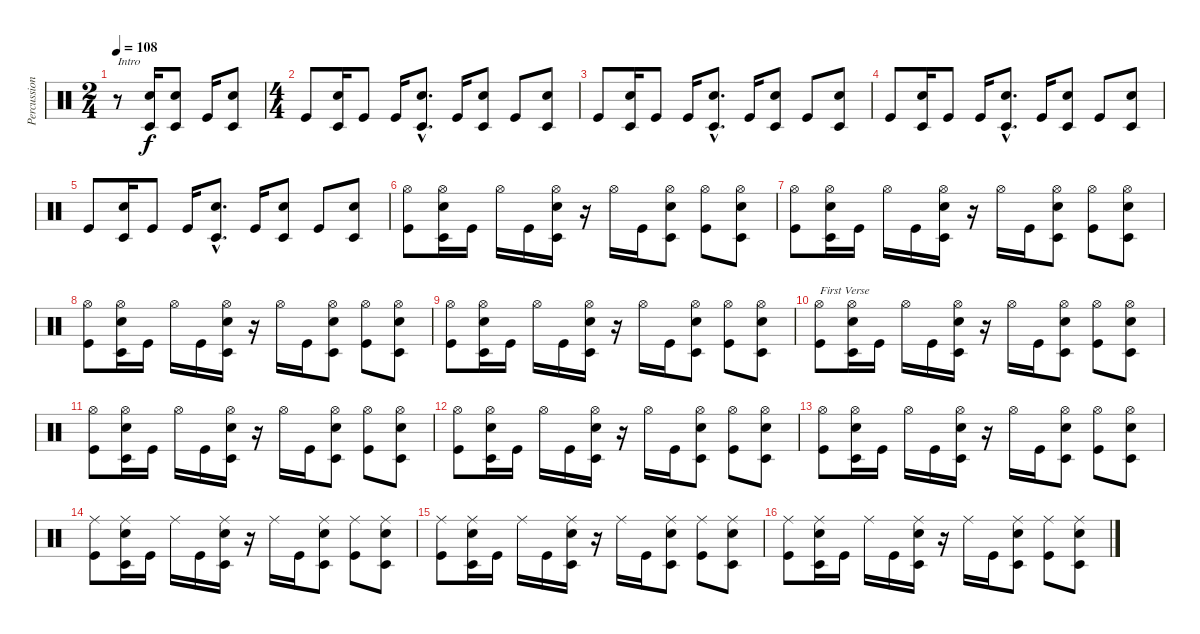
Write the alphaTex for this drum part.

\track ("Percussion" "Percussion") {instrument percussion}
\staff {score}
\articulation defaults
\ts (2 4)
\tempo 108
\clef neutral
\ks c
r.8{txt "Intro" dy f} ("Electric Snare (hit)" "Timbale low (hit)").16 ("Electric Snare (hit)" "Timbale low (hit)").8 "Kick (hit)".16 ("Timbale low (hit)" "Electric Snare (hit)").8 |
\ts (4 4)
"Kick (hit)".8 ("Electric Snare (hit)" "Timbale low (hit)").16 "Kick (hit)".8 "Kick (hit)".16 ("Electric Snare (hit)"{hac} "Timbale low (hit)"{hac}).8{d} "Kick (hit)".16 ("Electric Snare (hit)" "Timbale low (hit)").8 "Kick (hit)".8 ("Electric Snare (hit)" "Timbale low (hit)").8 |
"Kick (hit)".8 ("Electric Snare (hit)" "Timbale low (hit)").16 "Kick (hit)".8 "Kick (hit)".16 ("Electric Snare (hit)"{hac} "Timbale low (hit)"{hac}).8{d} "Kick (hit)".16 ("Electric Snare (hit)" "Timbale low (hit)").8 "Kick (hit)".8 ("Electric Snare (hit)" "Timbale low (hit)").8 |
"Kick (hit)".8 ("Electric Snare (hit)" "Timbale low (hit)").16 "Kick (hit)".8 "Kick (hit)".16 ("Electric Snare (hit)"{hac} "Timbale low (hit)"{hac}).8{d} "Kick (hit)".16 ("Electric Snare (hit)" "Timbale low (hit)").8 "Kick (hit)".8 ("Electric Snare (hit)" "Timbale low (hit)").8 |
"Kick (hit)".8 ("Electric Snare (hit)" "Timbale low (hit)").16 "Kick (hit)".8 "Kick (hit)".16 ("Electric Snare (hit)"{hac} "Timbale low (hit)"{hac}).8{d} "Kick (hit)".16 ("Electric Snare (hit)" "Timbale low (hit)").8 "Kick (hit)".8 ("Electric Snare (hit)" "Timbale low (hit)").8 |
("Hi-Hat (open)" "Kick (hit)").8 ("Hi-Hat (open)" "Electric Snare (hit)" "Timbale low (hit)").16 "Kick (hit)".16 "Hi-Hat (open)".16 "Kick (hit)".16 ("Hi-Hat (open)" "Timbale low (hit)" "Electric Snare (hit)").16 r.16 "Hi-Hat (open)".16 "Kick (hit)".16 ("Hi-Hat (open)" "Electric Snare (hit)" "Timbale low (hit)").8 ("Hi-Hat (open)" "Kick (hit)").8 ("Hi-Hat (open)" "Electric Snare (hit)" "Timbale low (hit)").8 |
("Hi-Hat (open)" "Kick (hit)").8 ("Hi-Hat (open)" "Electric Snare (hit)" "Timbale low (hit)").16 "Kick (hit)".16 "Hi-Hat (open)".16 "Kick (hit)".16 ("Hi-Hat (open)" "Timbale low (hit)" "Electric Snare (hit)").16 r.16 "Hi-Hat (open)".16 "Kick (hit)".16 ("Hi-Hat (open)" "Electric Snare (hit)" "Timbale low (hit)").8 ("Hi-Hat (open)" "Kick (hit)").8 ("Hi-Hat (open)" "Electric Snare (hit)" "Timbale low (hit)").8 |
("Hi-Hat (open)" "Kick (hit)").8 ("Hi-Hat (open)" "Electric Snare (hit)" "Timbale low (hit)").16 "Kick (hit)".16 "Hi-Hat (open)".16 "Kick (hit)".16 ("Hi-Hat (open)" "Timbale low (hit)" "Electric Snare (hit)").16 r.16 "Hi-Hat (open)".16 "Kick (hit)".16 ("Hi-Hat (open)" "Electric Snare (hit)" "Timbale low (hit)").8 ("Hi-Hat (open)" "Kick (hit)").8 ("Hi-Hat (open)" "Electric Snare (hit)" "Timbale low (hit)").8 |
("Hi-Hat (open)" "Kick (hit)").8 ("Hi-Hat (open)" "Electric Snare (hit)" "Timbale low (hit)").16 "Kick (hit)".16 "Hi-Hat (open)".16 "Kick (hit)".16 ("Hi-Hat (open)" "Timbale low (hit)" "Electric Snare (hit)").16 r.16 "Hi-Hat (open)".16 "Kick (hit)".16 ("Hi-Hat (open)" "Electric Snare (hit)" "Timbale low (hit)").8 ("Hi-Hat (open)" "Kick (hit)").8 ("Hi-Hat (open)" "Electric Snare (hit)" "Timbale low (hit)").8 |
("Hi-Hat (open)" "Kick (hit)").8{txt "First Verse"} ("Hi-Hat (open)" "Electric Snare (hit)" "Timbale low (hit)").16 "Kick (hit)".16 "Hi-Hat (open)".16 "Kick (hit)".16 ("Hi-Hat (open)" "Timbale low (hit)" "Electric Snare (hit)").16 r.16 "Hi-Hat (open)".16 "Kick (hit)".16 ("Hi-Hat (open)" "Electric Snare (hit)" "Timbale low (hit)").8 ("Hi-Hat (open)" "Kick (hit)").8 ("Hi-Hat (open)" "Electric Snare (hit)" "Timbale low (hit)").8 |
("Hi-Hat (open)" "Kick (hit)").8 ("Hi-Hat (open)" "Electric Snare (hit)" "Timbale low (hit)").16 "Kick (hit)".16 "Hi-Hat (open)".16 "Kick (hit)".16 ("Hi-Hat (open)" "Timbale low (hit)" "Electric Snare (hit)").16 r.16 "Hi-Hat (open)".16 "Kick (hit)".16 ("Hi-Hat (open)" "Electric Snare (hit)" "Timbale low (hit)").8 ("Hi-Hat (open)" "Kick (hit)").8 ("Hi-Hat (open)" "Electric Snare (hit)" "Timbale low (hit)").8 |
("Hi-Hat (open)" "Kick (hit)").8 ("Hi-Hat (open)" "Electric Snare (hit)" "Timbale low (hit)").16 "Kick (hit)".16 "Hi-Hat (open)".16 "Kick (hit)".16 ("Hi-Hat (open)" "Timbale low (hit)" "Electric Snare (hit)").16 r.16 "Hi-Hat (open)".16 "Kick (hit)".16 ("Hi-Hat (open)" "Electric Snare (hit)" "Timbale low (hit)").8 ("Hi-Hat (open)" "Kick (hit)").8 ("Hi-Hat (open)" "Electric Snare (hit)" "Timbale low (hit)").8 |
("Hi-Hat (open)" "Kick (hit)").8 ("Hi-Hat (open)" "Electric Snare (hit)" "Timbale low (hit)").16 "Kick (hit)".16 "Hi-Hat (open)".16 "Kick (hit)".16 ("Hi-Hat (open)" "Timbale low (hit)" "Electric Snare (hit)").16 r.16 "Hi-Hat (open)".16 "Kick (hit)".16 ("Hi-Hat (open)" "Electric Snare (hit)" "Timbale low (hit)").8 ("Hi-Hat (open)" "Kick (hit)").8 ("Hi-Hat (open)" "Electric Snare (hit)" "Timbale low (hit)").8 |
("Ride (middle)" "Kick (hit)").8 ("Ride (middle)" "Electric Snare (hit)" "Timbale low (hit)").16 "Kick (hit)".16 "Ride (middle)".16 "Kick (hit)".16 ("Ride (middle)" "Timbale low (hit)" "Electric Snare (hit)").16 r.16 "Ride (middle)".16 "Kick (hit)".16 ("Ride (middle)" "Electric Snare (hit)" "Timbale low (hit)").8 ("Ride (middle)" "Kick (hit)").8 ("Ride (middle)" "Electric Snare (hit)" "Timbale low (hit)").8 |
("Ride (middle)" "Kick (hit)").8 ("Ride (middle)" "Electric Snare (hit)" "Timbale low (hit)").16 "Kick (hit)".16 "Ride (middle)".16 "Kick (hit)".16 ("Ride (middle)" "Timbale low (hit)" "Electric Snare (hit)").16 r.16 "Ride (middle)".16 "Kick (hit)".16 ("Ride (middle)" "Electric Snare (hit)" "Timbale low (hit)").8 ("Ride (middle)" "Kick (hit)").8 ("Ride (middle)" "Electric Snare (hit)" "Timbale low (hit)").8 |
("Ride (middle)" "Kick (hit)").8 ("Ride (middle)" "Electric Snare (hit)" "Timbale low (hit)").16 "Kick (hit)".16 "Ride (middle)".16 "Kick (hit)".16 ("Ride (middle)" "Timbale low (hit)" "Electric Snare (hit)").16 r.16 "Ride (middle)".16 "Kick (hit)".16 ("Ride (middle)" "Electric Snare (hit)" "Timbale low (hit)").8 ("Ride (middle)" "Kick (hit)").8 ("Ride (middle)" "Electric Snare (hit)" "Timbale low (hit)").8
